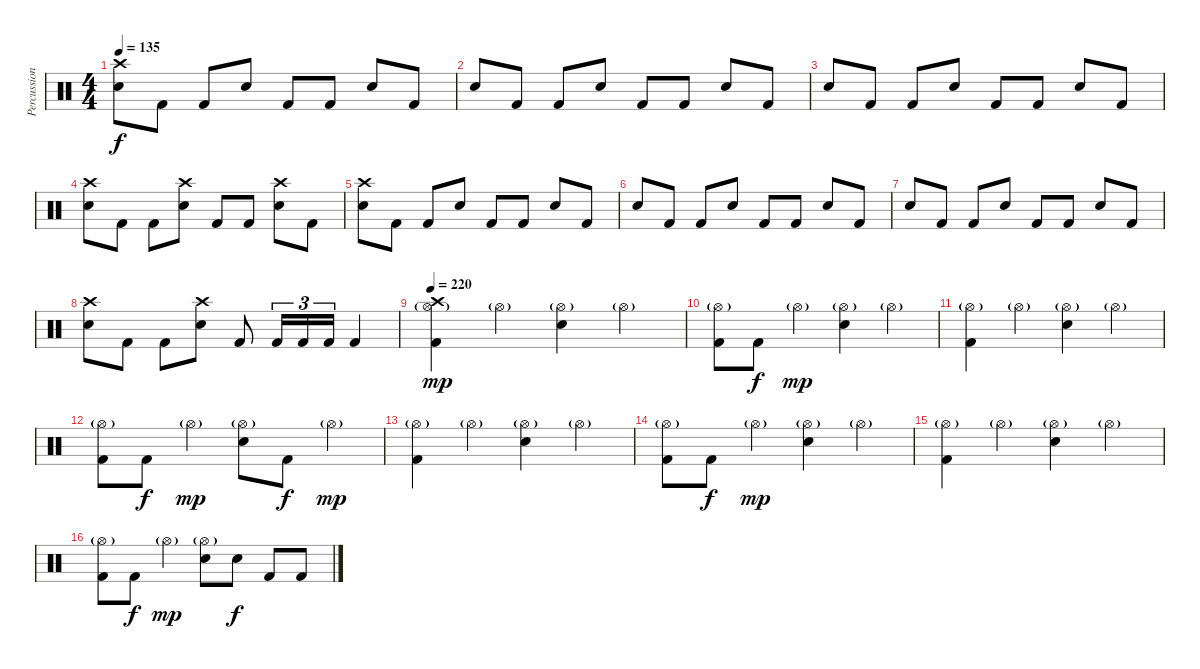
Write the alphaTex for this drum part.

\track ("Percussion" "Percussion") {instrument percussion}
\staff {score}
\articulation defaults
\ts (4 4)
\tempo 135
\clef neutral
\ks c
("Crash high (hit)" "Snare (hit) 2").8{dy f} "Kick (hit) 2".8 "Kick (hit) 2".8 "Snare (hit) 2".8 "Kick (hit) 2".8 "Kick (hit) 2".8 "Snare (hit) 2".8 "Kick (hit) 2".8 |
"Snare (hit) 2".8 "Kick (hit) 2".8 "Kick (hit) 2".8 "Snare (hit) 2".8 "Kick (hit) 2".8 "Kick (hit) 2".8 "Snare (hit) 2".8 "Kick (hit) 2".8 |
"Snare (hit) 2".8 "Kick (hit) 2".8 "Kick (hit) 2".8 "Snare (hit) 2".8 "Kick (hit) 2".8 "Kick (hit) 2".8 "Snare (hit) 2".8 "Kick (hit) 2".8 |
("Crash high (hit)" "Snare (hit) 2").8 "Kick (hit) 2".8 "Kick (hit) 2".8 ("Crash high (hit)" "Snare (hit) 2").8 "Kick (hit) 2".8 "Kick (hit) 2".8 ("Crash high (hit)" "Snare (hit) 2").8 "Kick (hit) 2".8 |
("Crash high (hit)" "Snare (hit) 2").8 "Kick (hit) 2".8 "Kick (hit) 2".8 "Snare (hit) 2".8 "Kick (hit) 2".8 "Kick (hit) 2".8 "Snare (hit) 2".8 "Kick (hit) 2".8 |
"Snare (hit) 2".8 "Kick (hit) 2".8 "Kick (hit) 2".8 "Snare (hit) 2".8 "Kick (hit) 2".8 "Kick (hit) 2".8 "Snare (hit) 2".8 "Kick (hit) 2".8 |
"Snare (hit) 2".8 "Kick (hit) 2".8 "Kick (hit) 2".8 "Snare (hit) 2".8 "Kick (hit) 2".8 "Kick (hit) 2".8 "Snare (hit) 2".8 "Kick (hit) 2".8 |
("Crash high (hit)" "Snare (hit) 2").8 "Kick (hit) 2".8 "Kick (hit) 2".8 ("Crash high (hit)" "Snare (hit) 2").8 "Kick (hit) 2".8 "Kick (hit) 2".16{tu (3 2)} "Kick (hit) 2".16{tu (3 2)} "Kick (hit) 2".16{tu (3 2)} "Kick (hit) 2".4 |
\tempo 220
("Hi-Hat (open)"{g} "Crash high (hit)" "Kick (hit) 2").4{dy mp} "Hi-Hat (open)"{g}.4 ("Hi-Hat (open)"{g} "Snare (hit) 2").4 "Hi-Hat (open)"{g}.4 |
("Hi-Hat (open)"{g} "Kick (hit) 2").8 "Kick (hit) 2".8{dy f} "Hi-Hat (open)"{g}.4{dy mp} ("Hi-Hat (open)"{g} "Snare (hit) 2").4 "Hi-Hat (open)"{g}.4 |
("Hi-Hat (open)"{g} "Kick (hit) 2").4 "Hi-Hat (open)"{g}.4 ("Hi-Hat (open)"{g} "Snare (hit) 2").4 "Hi-Hat (open)"{g}.4 |
("Hi-Hat (open)"{g} "Kick (hit) 2").8 "Kick (hit) 2".8{dy f} "Hi-Hat (open)"{g}.4{dy mp} ("Hi-Hat (open)"{g} "Snare (hit) 2").8 "Kick (hit) 2".8{dy f} "Hi-Hat (open)"{g}.4{dy mp} |
("Hi-Hat (open)"{g} "Kick (hit) 2").4 "Hi-Hat (open)"{g}.4 ("Hi-Hat (open)"{g} "Snare (hit) 2").4 "Hi-Hat (open)"{g}.4 |
("Hi-Hat (open)"{g} "Kick (hit) 2").8 "Kick (hit) 2".8{dy f} "Hi-Hat (open)"{g}.4{dy mp} ("Hi-Hat (open)"{g} "Snare (hit) 2").4 "Hi-Hat (open)"{g}.4 |
("Hi-Hat (open)"{g} "Kick (hit) 2").4 "Hi-Hat (open)"{g}.4 ("Hi-Hat (open)"{g} "Snare (hit) 2").4 "Hi-Hat (open)"{g}.4 |
("Hi-Hat (open)"{g} "Kick (hit) 2").8 "Kick (hit) 2".8{dy f} "Hi-Hat (open)"{g}.4{dy mp} ("Hi-Hat (open)"{g} "Snare (hit) 2").8 "Snare (hit) 2".8{dy f} "Kick (hit) 2".8 "Kick (hit) 2".8
